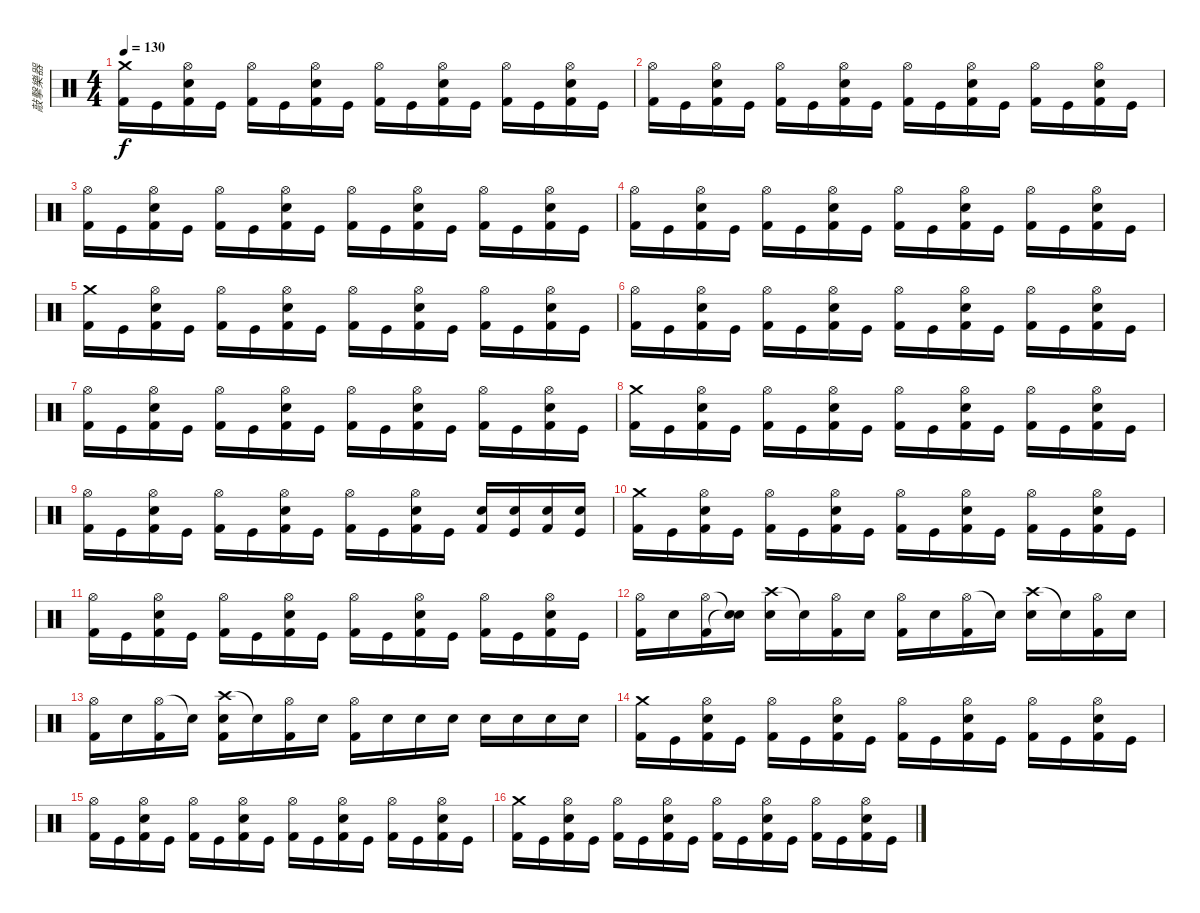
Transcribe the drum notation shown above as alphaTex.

\track ("敲擊樂器" "敲擊樂器") {instrument percussion}
\staff {score}
\articulation defaults
\ts (4 4)
\tempo 130
\clef neutral
\ks c
("Crash medium (hit)" "Kick (hit) 2").16{dy f} "Kick (hit)".16 ("Hi-Hat (open)" "Snare (hit) 2" "Kick (hit) 2").16 "Kick (hit)".16 ("Hi-Hat (open)" "Kick (hit) 2").16 "Kick (hit)".16 ("Hi-Hat (open)" "Snare (hit) 2" "Kick (hit) 2").16 "Kick (hit)".16 ("Hi-Hat (open)" "Kick (hit) 2").16 "Kick (hit)".16 ("Hi-Hat (open)" "Snare (hit) 2" "Kick (hit) 2").16 "Kick (hit)".16 ("Hi-Hat (open)" "Kick (hit) 2").16 "Kick (hit)".16 ("Hi-Hat (open)" "Snare (hit) 2" "Kick (hit) 2").16 "Kick (hit)".16 |
("Hi-Hat (open)" "Kick (hit) 2").16 "Kick (hit)".16 ("Hi-Hat (open)" "Snare (hit) 2" "Kick (hit) 2").16 "Kick (hit)".16 ("Hi-Hat (open)" "Kick (hit) 2").16 "Kick (hit)".16 ("Hi-Hat (open)" "Snare (hit) 2" "Kick (hit) 2").16 "Kick (hit)".16 ("Hi-Hat (open)" "Kick (hit) 2").16 "Kick (hit)".16 ("Hi-Hat (open)" "Snare (hit) 2" "Kick (hit) 2").16 "Kick (hit)".16 ("Hi-Hat (open)" "Kick (hit) 2").16 "Kick (hit)".16 ("Hi-Hat (open)" "Snare (hit) 2" "Kick (hit) 2").16 "Kick (hit)".16 |
("Hi-Hat (open)" "Kick (hit) 2").16 "Kick (hit)".16 ("Hi-Hat (open)" "Snare (hit) 2" "Kick (hit) 2").16 "Kick (hit)".16 ("Hi-Hat (open)" "Kick (hit) 2").16 "Kick (hit)".16 ("Hi-Hat (open)" "Snare (hit) 2" "Kick (hit) 2").16 "Kick (hit)".16 ("Hi-Hat (open)" "Kick (hit) 2").16 "Kick (hit)".16 ("Hi-Hat (open)" "Snare (hit) 2" "Kick (hit) 2").16 "Kick (hit)".16 ("Hi-Hat (open)" "Kick (hit) 2").16 "Kick (hit)".16 ("Hi-Hat (open)" "Snare (hit) 2" "Kick (hit) 2").16 "Kick (hit)".16 |
("Hi-Hat (open)" "Kick (hit) 2").16 "Kick (hit)".16 ("Hi-Hat (open)" "Snare (hit) 2" "Kick (hit) 2").16 "Kick (hit)".16 ("Hi-Hat (open)" "Kick (hit) 2").16 "Kick (hit)".16 ("Hi-Hat (open)" "Snare (hit) 2" "Kick (hit) 2").16 "Kick (hit)".16 ("Hi-Hat (open)" "Kick (hit) 2").16 "Kick (hit)".16 ("Hi-Hat (open)" "Snare (hit) 2" "Kick (hit) 2").16 "Kick (hit)".16 ("Hi-Hat (open)" "Kick (hit) 2").16 "Kick (hit)".16 ("Hi-Hat (open)" "Snare (hit) 2" "Kick (hit) 2").16 "Kick (hit)".16 |
("Crash medium (hit)" "Kick (hit) 2").16 "Kick (hit)".16 ("Hi-Hat (open)" "Snare (hit) 2" "Kick (hit) 2").16 "Kick (hit)".16 ("Hi-Hat (open)" "Kick (hit) 2").16 "Kick (hit)".16 ("Hi-Hat (open)" "Snare (hit) 2" "Kick (hit) 2").16 "Kick (hit)".16 ("Hi-Hat (open)" "Kick (hit) 2").16 "Kick (hit)".16 ("Hi-Hat (open)" "Snare (hit) 2" "Kick (hit) 2").16 "Kick (hit)".16 ("Hi-Hat (open)" "Kick (hit) 2").16 "Kick (hit)".16 ("Hi-Hat (open)" "Snare (hit) 2" "Kick (hit) 2").16 "Kick (hit)".16 |
("Hi-Hat (open)" "Kick (hit) 2").16 "Kick (hit)".16 ("Hi-Hat (open)" "Snare (hit) 2" "Kick (hit) 2").16 "Kick (hit)".16 ("Hi-Hat (open)" "Kick (hit) 2").16 "Kick (hit)".16 ("Hi-Hat (open)" "Snare (hit) 2" "Kick (hit) 2").16 "Kick (hit)".16 ("Hi-Hat (open)" "Kick (hit) 2").16 "Kick (hit)".16 ("Hi-Hat (open)" "Snare (hit) 2" "Kick (hit) 2").16 "Kick (hit)".16 ("Hi-Hat (open)" "Kick (hit) 2").16 "Kick (hit)".16 ("Hi-Hat (open)" "Snare (hit) 2" "Kick (hit) 2").16 "Kick (hit)".16 |
("Hi-Hat (open)" "Kick (hit) 2").16 "Kick (hit)".16 ("Hi-Hat (open)" "Snare (hit) 2" "Kick (hit) 2").16 "Kick (hit)".16 ("Hi-Hat (open)" "Kick (hit) 2").16 "Kick (hit)".16 ("Hi-Hat (open)" "Snare (hit) 2" "Kick (hit) 2").16 "Kick (hit)".16 ("Hi-Hat (open)" "Kick (hit) 2").16 "Kick (hit)".16 ("Hi-Hat (open)" "Snare (hit) 2" "Kick (hit) 2").16 "Kick (hit)".16 ("Hi-Hat (open)" "Kick (hit) 2").16 "Kick (hit)".16 ("Hi-Hat (open)" "Snare (hit) 2" "Kick (hit) 2").16 "Kick (hit)".16 |
("Crash medium (hit)" "Kick (hit) 2").16 "Kick (hit)".16 ("Hi-Hat (open)" "Snare (hit) 2" "Kick (hit) 2").16 "Kick (hit)".16 ("Hi-Hat (open)" "Kick (hit) 2").16 "Kick (hit)".16 ("Hi-Hat (open)" "Snare (hit) 2" "Kick (hit) 2").16 "Kick (hit)".16 ("Hi-Hat (open)" "Kick (hit) 2").16 "Kick (hit)".16 ("Hi-Hat (open)" "Snare (hit) 2" "Kick (hit) 2").16 "Kick (hit)".16 ("Hi-Hat (open)" "Kick (hit) 2").16 "Kick (hit)".16 ("Hi-Hat (open)" "Snare (hit) 2" "Kick (hit) 2").16 "Kick (hit)".16 |
("Hi-Hat (open)" "Kick (hit) 2").16 "Kick (hit)".16 ("Hi-Hat (open)" "Snare (hit) 2" "Kick (hit) 2").16 "Kick (hit)".16 ("Hi-Hat (open)" "Kick (hit) 2").16 "Kick (hit)".16 ("Hi-Hat (open)" "Snare (hit) 2" "Kick (hit) 2").16 "Kick (hit)".16 ("Hi-Hat (open)" "Kick (hit) 2").16 "Kick (hit)".16 ("Hi-Hat (open)" "Snare (hit) 2" "Kick (hit) 2").16 "Kick (hit)".16 ("Snare (hit) 2" "Kick (hit) 2").16 ("Snare (hit) 2" "Kick (hit)").16 ("Snare (hit) 2" "Kick (hit) 2").16 ("Snare (hit) 2" "Kick (hit)").16 |
("Crash medium (hit)" "Kick (hit) 2").16 "Kick (hit)".16 ("Hi-Hat (open)" "Snare (hit) 2" "Kick (hit) 2").16 "Kick (hit)".16 ("Hi-Hat (open)" "Kick (hit) 2").16 "Kick (hit)".16 ("Hi-Hat (open)" "Snare (hit) 2" "Kick (hit) 2").16 "Kick (hit)".16 ("Hi-Hat (open)" "Kick (hit) 2").16 "Kick (hit)".16 ("Hi-Hat (open)" "Snare (hit) 2" "Kick (hit) 2").16 "Kick (hit)".16 ("Hi-Hat (open)" "Kick (hit) 2").16 "Kick (hit)".16 ("Hi-Hat (open)" "Snare (hit) 2" "Kick (hit) 2").16 "Kick (hit)".16 |
("Hi-Hat (open)" "Kick (hit) 2").16 "Kick (hit)".16 ("Hi-Hat (open)" "Snare (hit) 2" "Kick (hit) 2").16 "Kick (hit)".16 ("Hi-Hat (open)" "Kick (hit) 2").16 "Kick (hit)".16 ("Hi-Hat (open)" "Snare (hit) 2" "Kick (hit) 2").16 "Kick (hit)".16 ("Hi-Hat (open)" "Kick (hit) 2").16 "Kick (hit)".16 ("Hi-Hat (open)" "Snare (hit) 2" "Kick (hit) 2").16 "Kick (hit)".16 ("Hi-Hat (open)" "Kick (hit) 2").16 "Kick (hit)".16 ("Hi-Hat (open)" "Snare (hit) 2" "Kick (hit) 2").16 "Kick (hit)".16 |
("Hi-Hat (open)" "Kick (hit) 2").16 "Snare (hit) 2".16 ("Hi-Hat (open)" "Kick (hit) 2").16 ("Snare (hit)"{t} "Snare (hit) 2"{t}).16 ("Crash high (hit)" "Snare (hit) 2").16 "Snare (hit)"{t}.16 ("Hi-Hat (open)" "Kick (hit) 2").16 "Snare (hit) 2".16 ("Hi-Hat (open)" "Kick (hit) 2").16 "Snare (hit) 2".16 ("Hi-Hat (open)" "Kick (hit) 2").16 "Snare (hit) 2"{t}.16 ("Crash high (hit)" "Snare (hit) 2").16 "Snare (hit)"{t}.16 ("Hi-Hat (open)" "Kick (hit) 2").16 "Snare (hit) 2".16 |
("Hi-Hat (open)" "Kick (hit) 2").16 "Snare (hit) 2".16 ("Hi-Hat (open)" "Kick (hit) 2").16 "Snare (hit)"{t}.16 ("Crash high (hit)" "Snare (hit) 2" "Kick (hit) 2").16 "Snare (hit)"{t}.16 ("Hi-Hat (open)" "Kick (hit) 2").16 "Snare (hit) 2".16 ("Hi-Hat (open)" "Kick (hit) 2").16 "Snare (hit) 2".16 "Snare (hit) 2".16 "Snare (hit) 2".16 "Snare (hit) 2".16 "Snare (hit) 2".16 "Snare (hit) 2".16 "Snare (hit) 2".16 |
("Crash medium (hit)" "Kick (hit) 2").16 "Kick (hit)".16 ("Hi-Hat (open)" "Snare (hit) 2" "Kick (hit) 2").16 "Kick (hit)".16 ("Hi-Hat (open)" "Kick (hit) 2").16 "Kick (hit)".16 ("Hi-Hat (open)" "Snare (hit) 2" "Kick (hit) 2").16 "Kick (hit)".16 ("Hi-Hat (open)" "Kick (hit) 2").16 "Kick (hit)".16 ("Hi-Hat (open)" "Snare (hit) 2" "Kick (hit) 2").16 "Kick (hit)".16 ("Hi-Hat (open)" "Kick (hit) 2").16 "Kick (hit)".16 ("Hi-Hat (open)" "Snare (hit) 2" "Kick (hit) 2").16 "Kick (hit)".16 |
("Hi-Hat (open)" "Kick (hit) 2").16 "Kick (hit)".16 ("Hi-Hat (open)" "Snare (hit) 2" "Kick (hit) 2").16 "Kick (hit)".16 ("Hi-Hat (open)" "Kick (hit) 2").16 "Kick (hit)".16 ("Hi-Hat (open)" "Snare (hit) 2" "Kick (hit) 2").16 "Kick (hit)".16 ("Hi-Hat (open)" "Kick (hit) 2").16 "Kick (hit)".16 ("Hi-Hat (open)" "Snare (hit) 2" "Kick (hit) 2").16 "Kick (hit)".16 ("Hi-Hat (open)" "Kick (hit) 2").16 "Kick (hit)".16 ("Hi-Hat (open)" "Snare (hit) 2" "Kick (hit) 2").16 "Kick (hit)".16 |
("Crash medium (hit)" "Kick (hit) 2").16 "Kick (hit)".16 ("Hi-Hat (open)" "Snare (hit) 2" "Kick (hit) 2").16 "Kick (hit)".16 ("Hi-Hat (open)" "Kick (hit) 2").16 "Kick (hit)".16 ("Hi-Hat (open)" "Snare (hit) 2" "Kick (hit) 2").16 "Kick (hit)".16 ("Hi-Hat (open)" "Kick (hit) 2").16 "Kick (hit)".16 ("Hi-Hat (open)" "Snare (hit) 2" "Kick (hit) 2").16 "Kick (hit)".16 ("Hi-Hat (open)" "Kick (hit) 2").16 "Kick (hit)".16 ("Hi-Hat (open)" "Snare (hit) 2" "Kick (hit) 2").16 "Kick (hit)".16
